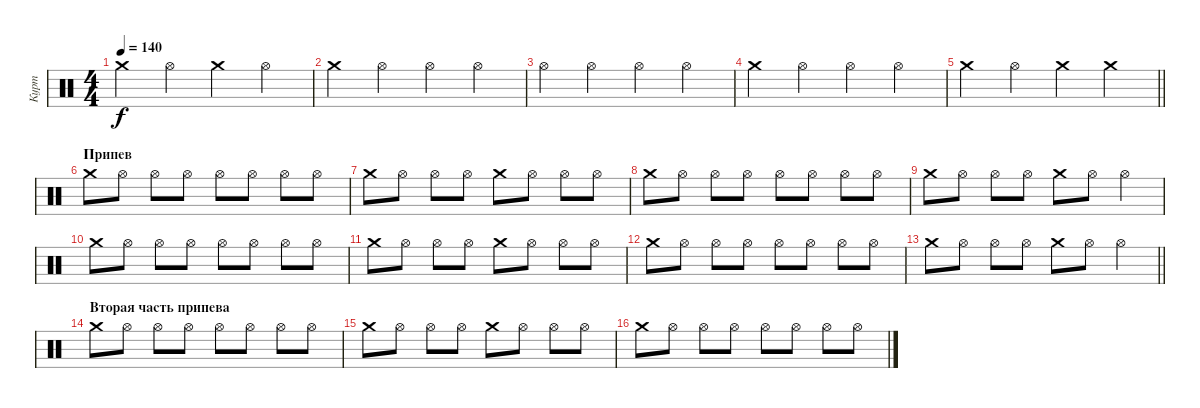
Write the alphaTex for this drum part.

\track ("Курт" "Курт") {instrument percussion}
\staff {score}
\articulation defaults
\ts (4 4)
\tempo 140
\clef neutral
\ks c "Crash medium (hit)".4{dy f} "Hi-Hat (open)".4 "Crash medium (hit)".4 "Hi-Hat (open)".4
|
"Crash medium (hit)".4 "Hi-Hat (open)".4 "Hi-Hat (open)".4 "Hi-Hat (open)".4 |
"Hi-Hat (open)".4 "Hi-Hat (open)".4 "Hi-Hat (open)".4 "Hi-Hat (open)".4 |
"Crash medium (hit)".4 "Hi-Hat (open)".4 "Hi-Hat (open)".4 "Hi-Hat (open)".4 |
\barLineRight lightlight "Crash medium (hit)".4 "Hi-Hat (open)".4 "Crash medium (hit)".4 "Crash medium (hit)".4
|
\section ("" "Припев")
"Crash medium (hit)".8 "Hi-Hat (open)".8 "Hi-Hat (open)".8 "Hi-Hat (open)".8 "Hi-Hat (open)".8 "Hi-Hat (open)".8 "Hi-Hat (open)".8 "Hi-Hat (open)".8 |
"Crash medium (hit)".8 "Hi-Hat (open)".8 "Hi-Hat (open)".8 "Hi-Hat (open)".8 "Crash medium (hit)".8 "Hi-Hat (open)".8 "Hi-Hat (open)".8 "Hi-Hat (open)".8 |
"Crash medium (hit)".8 "Hi-Hat (open)".8 "Hi-Hat (open)".8 "Hi-Hat (open)".8 "Hi-Hat (open)".8 "Hi-Hat (open)".8 "Hi-Hat (open)".8 "Hi-Hat (open)".8 |
"Crash medium (hit)".8 "Hi-Hat (open)".8 "Hi-Hat (open)".8 "Hi-Hat (open)".8 "Crash medium (hit)".8 "Hi-Hat (open)".8 "Hi-Hat (open)".4 |
"Crash medium (hit)".8 "Hi-Hat (open)".8 "Hi-Hat (open)".8 "Hi-Hat (open)".8 "Hi-Hat (open)".8 "Hi-Hat (open)".8 "Hi-Hat (open)".8 "Hi-Hat (open)".8 |
"Crash medium (hit)".8 "Hi-Hat (open)".8 "Hi-Hat (open)".8 "Hi-Hat (open)".8 "Crash medium (hit)".8 "Hi-Hat (open)".8 "Hi-Hat (open)".8 "Hi-Hat (open)".8 |
"Crash medium (hit)".8 "Hi-Hat (open)".8 "Hi-Hat (open)".8 "Hi-Hat (open)".8 "Hi-Hat (open)".8 "Hi-Hat (open)".8 "Hi-Hat (open)".8 "Hi-Hat (open)".8 |
\barLineRight lightlight "Crash medium (hit)".8 "Hi-Hat (open)".8 "Hi-Hat (open)".8 "Hi-Hat (open)".8 "Crash medium (hit)".8 "Hi-Hat (open)".8 "Hi-Hat (open)".4
|
\section ("" "Вторая часть припева")
"Crash medium (hit)".8 "Hi-Hat (open)".8 "Hi-Hat (open)".8 "Hi-Hat (open)".8 "Hi-Hat (open)".8 "Hi-Hat (open)".8 "Hi-Hat (open)".8 "Hi-Hat (open)".8 |
"Crash medium (hit)".8 "Hi-Hat (open)".8 "Hi-Hat (open)".8 "Hi-Hat (open)".8 "Crash medium (hit)".8 "Hi-Hat (open)".8 "Hi-Hat (open)".8 "Hi-Hat (open)".8 |
"Crash medium (hit)".8 "Hi-Hat (open)".8 "Hi-Hat (open)".8 "Hi-Hat (open)".8 "Hi-Hat (open)".8 "Hi-Hat (open)".8 "Hi-Hat (open)".8 "Hi-Hat (open)".8
